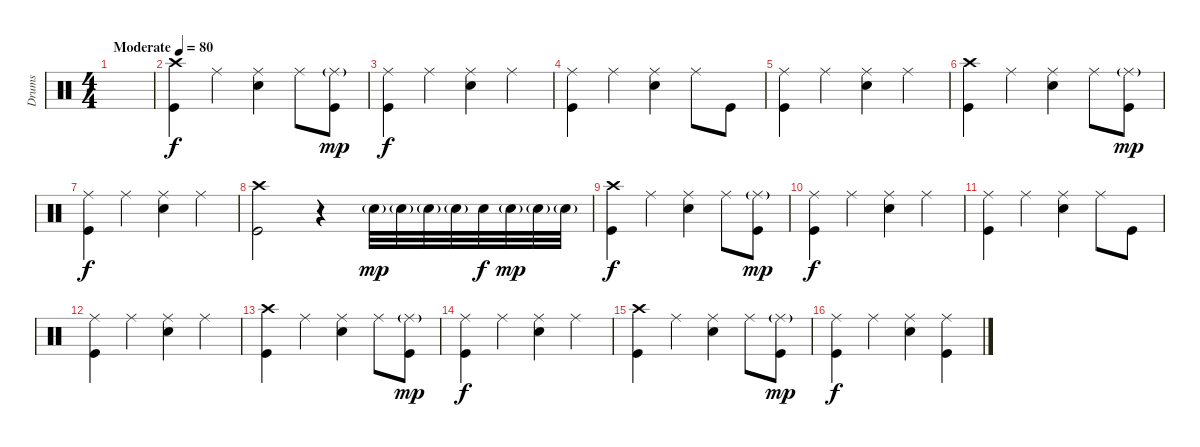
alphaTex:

\track ("Drums" "Drums") {instrument percussion}
\staff {score}
\articulation defaults
\ts (4 4)
\tempo (80 "Moderate")
\clef neutral
\ks c
|
("Crash high (hit)" "Kick (hit)").4 "Ride (middle)".4 ("Ride (middle)" "Electric Snare (hit)").4 "Ride (middle)".8 ("Ride (middle)"{g} "Kick (hit)").8{dy mp} |
("Ride (middle)" "Kick (hit)").4{dy f} "Ride (middle)".4 ("Ride (middle)" "Electric Snare (hit)").4 "Ride (middle)".4 |
("Ride (middle)" "Kick (hit)").4 "Ride (middle)".4 ("Ride (middle)" "Electric Snare (hit)").4 "Ride (middle)".8 "Kick (hit)".8 |
("Ride (middle)" "Kick (hit)").4 "Ride (middle)".4 ("Ride (middle)" "Electric Snare (hit)").4 "Ride (middle)".4 |
("Crash high (hit)" "Kick (hit)").4 "Ride (middle)".4 ("Ride (middle)" "Electric Snare (hit)").4 "Ride (middle)".8 ("Ride (middle)"{g} "Kick (hit)").8{dy mp} |
("Ride (middle)" "Kick (hit)").4{dy f} "Ride (middle)".4 ("Ride (middle)" "Electric Snare (hit)").4 "Ride (middle)".4 |
("Crash high (hit)" "Kick (hit)").2 r.4 "Electric Snare (hit)"{g}.32{dy mp} "Electric Snare (hit)"{g}.32 "Electric Snare (hit)"{g}.32 "Electric Snare (hit)"{g}.32 "Electric Snare (hit)".32{dy f} "Electric Snare (hit)"{g}.32{dy mp} "Electric Snare (hit)"{g}.32 "Electric Snare (hit)"{g}.32 |
("Crash high (hit)" "Kick (hit)").4{dy f} "Ride (middle)".4 ("Ride (middle)" "Electric Snare (hit)").4 "Ride (middle)".8 ("Ride (middle)"{g} "Kick (hit)").8{dy mp} |
("Ride (middle)" "Kick (hit)").4{dy f} "Ride (middle)".4 ("Ride (middle)" "Electric Snare (hit)").4 "Ride (middle)".4 |
("Ride (middle)" "Kick (hit)").4 "Ride (middle)".4 ("Ride (middle)" "Electric Snare (hit)").4 "Ride (middle)".8 "Kick (hit)".8 |
("Ride (middle)" "Kick (hit)").4 "Ride (middle)".4 ("Ride (middle)" "Electric Snare (hit)").4 "Ride (middle)".4 |
("Crash high (hit)" "Kick (hit)").4 "Ride (middle)".4 ("Ride (middle)" "Electric Snare (hit)").4 "Ride (middle)".8 ("Ride (middle)"{g} "Kick (hit)").8{dy mp} |
("Ride (middle)" "Kick (hit)").4{dy f} "Ride (middle)".4 ("Ride (middle)" "Electric Snare (hit)").4 "Ride (middle)".4 |
("Crash high (hit)" "Kick (hit)").4 "Ride (middle)".4 ("Ride (middle)" "Electric Snare (hit)").4 "Ride (middle)".8 ("Ride (middle)"{g} "Kick (hit)").8{dy mp} |
("Ride (middle)" "Kick (hit)").4{dy f} "Ride (middle)".4 ("Ride (middle)" "Electric Snare (hit)").4 ("Ride (middle)" "Kick (hit)").4
